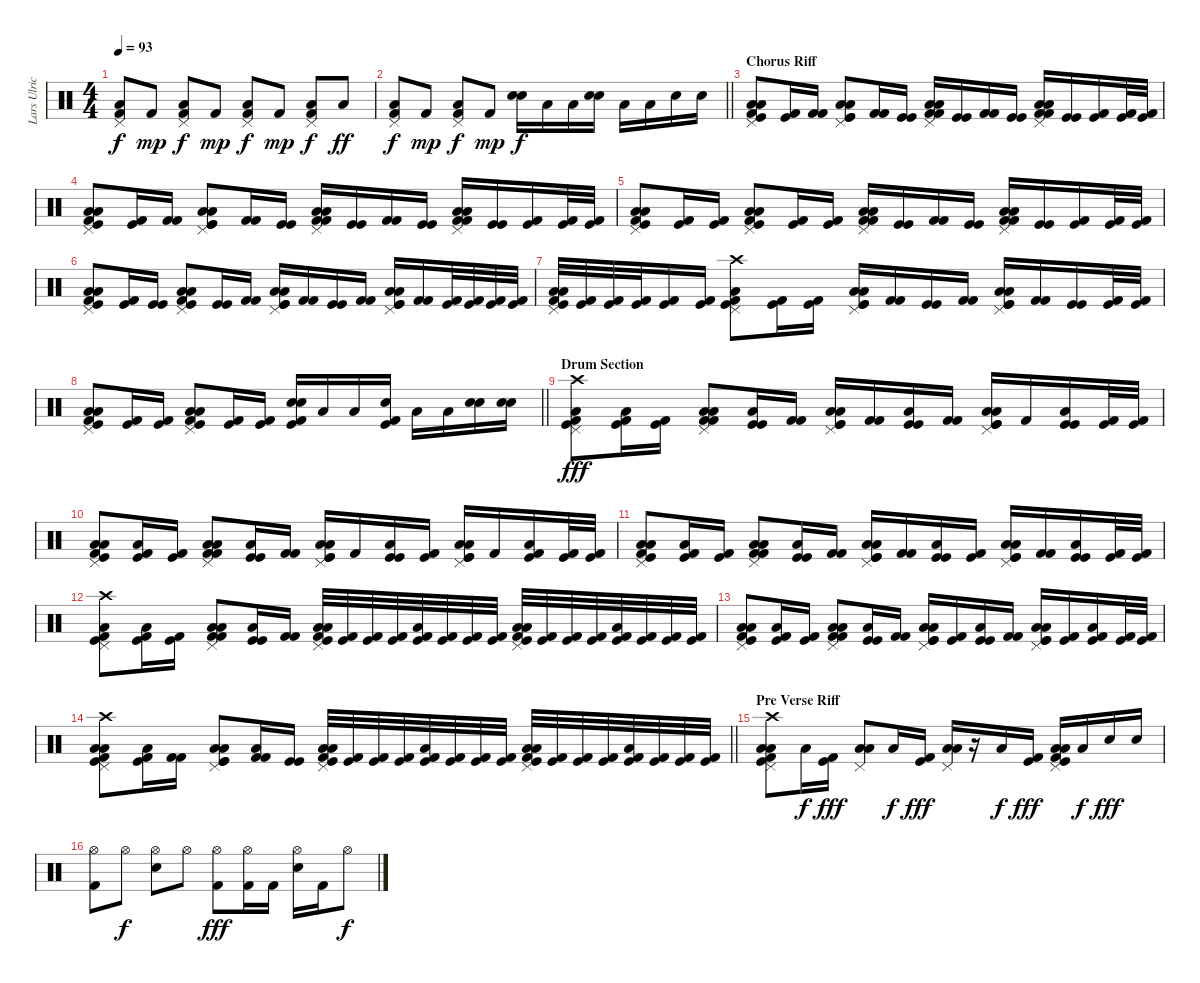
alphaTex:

\track ("Lars Ulrich" "Lars Ulric") {instrument percussion}
\staff {score}
\articulation defaults
\ts (4 4)
\tempo 93
\clef neutral
\ks c
("Pedal Hi-Hat (hit)" "Low Floor Tom (hit)" "Kick (hit) 2").8{dy f} "Kick (hit) 2".8{dy mp} ("Pedal Hi-Hat (hit)" "Low Floor Tom (hit)" "Kick (hit) 2").8{dy f} "Kick (hit) 2".8{dy mp} ("Pedal Hi-Hat (hit)" "Low Floor Tom (hit)" "Kick (hit) 2").8{dy f} "Kick (hit) 2".8{dy mp} ("Pedal Hi-Hat (hit)" "Low Floor Tom (hit)" "Kick (hit) 2").8{dy f} "Low Floor Tom (hit)".8{dy ff} |
\barLineRight lightlight
("Pedal Hi-Hat (hit)" "Low Floor Tom (hit)" "Kick (hit) 2").8{dy f} "Kick (hit) 2".8{dy mp} ("Pedal Hi-Hat (hit)" "Low Floor Tom (hit)" "Kick (hit) 2").8{dy f} "Kick (hit) 2".8{dy mp} ("Electric Snare (hit)" "Snare (hit) 2").16{dy f} "Low Tom (hit)".16 "Low Floor Tom (hit)".16 ("Electric Snare (hit)" "Snare (hit) 2").16 "Low Tom (hit)".16 "Low Floor Tom (hit)".16 "Snare (hit) 2".16 "Snare (hit) 2".16 |
\section ("" "Chorus Riff")
("Pedal Hi-Hat (hit)" "Low Floor Tom (hit)" "Low Tom (hit)" "Kick (hit)" "Kick (hit) 2").8 ("Kick (hit)" "Kick (hit) 2").16 ("Kick (hit) 2" "Kick (hit) 2").16 ("Pedal Hi-Hat (hit)" "Low Floor Tom (hit)" "Low Tom (hit)" "Kick (hit)" "Kick (hit)").8 ("Kick (hit) 2" "Kick (hit) 2").16 ("Kick (hit)" "Kick (hit)").16 ("Pedal Hi-Hat (hit)" "Low Floor Tom (hit)" "Low Tom (hit)" "Kick (hit) 2" "Kick (hit) 2").16 ("Kick (hit)" "Kick (hit)").16 ("Kick (hit) 2" "Kick (hit) 2").16 ("Kick (hit)" "Kick (hit)").16 ("Pedal Hi-Hat (hit)" "Low Floor Tom (hit)" "Low Tom (hit)" "Kick (hit) 2" "Kick (hit) 2").16 ("Kick (hit)" "Kick (hit)").16 ("Kick (hit)" "Kick (hit) 2").16 ("Kick (hit)" "Kick (hit) 2").32 ("Kick (hit)" "Kick (hit) 2").32 |
("Pedal Hi-Hat (hit)" "Low Floor Tom (hit)" "Low Tom (hit)" "Kick (hit)" "Kick (hit) 2").8 ("Kick (hit)" "Kick (hit) 2").16 ("Kick (hit) 2" "Kick (hit) 2").16 ("Pedal Hi-Hat (hit)" "Low Floor Tom (hit)" "Low Tom (hit)" "Kick (hit)" "Kick (hit)").8 ("Kick (hit) 2" "Kick (hit) 2").16 ("Kick (hit)" "Kick (hit)").16 ("Pedal Hi-Hat (hit)" "Low Floor Tom (hit)" "Low Tom (hit)" "Kick (hit) 2" "Kick (hit) 2").16 ("Kick (hit)" "Kick (hit)").16 ("Kick (hit) 2" "Kick (hit) 2").16 ("Kick (hit)" "Kick (hit)").16 ("Pedal Hi-Hat (hit)" "Low Floor Tom (hit)" "Low Tom (hit)" "Kick (hit) 2" "Kick (hit) 2").16 ("Kick (hit)" "Kick (hit)").16 ("Kick (hit)" "Kick (hit) 2").16 ("Kick (hit)" "Kick (hit) 2").32 ("Kick (hit)" "Kick (hit) 2").32 |
("Pedal Hi-Hat (hit)" "Low Floor Tom (hit)" "Low Tom (hit)" "Kick (hit)" "Kick (hit) 2").8 ("Kick (hit)" "Kick (hit) 2").16 ("Kick (hit)" "Kick (hit) 2").16 ("Pedal Hi-Hat (hit)" "Low Floor Tom (hit)" "Low Tom (hit)" "Kick (hit)" "Kick (hit) 2").8 ("Kick (hit)" "Kick (hit) 2").16 ("Kick (hit)" "Kick (hit) 2").16 ("Pedal Hi-Hat (hit)" "Low Floor Tom (hit)" "Low Tom (hit)" "Kick (hit) 2" "Kick (hit) 2").16 ("Kick (hit)" "Kick (hit)").16 ("Kick (hit) 2" "Kick (hit) 2").16 ("Kick (hit)" "Kick (hit)").16 ("Pedal Hi-Hat (hit)" "Low Floor Tom (hit)" "Low Tom (hit)" "Kick (hit) 2" "Kick (hit) 2").16 ("Kick (hit)" "Kick (hit)").16 ("Kick (hit)" "Kick (hit) 2").16 ("Kick (hit)" "Kick (hit) 2").32 ("Kick (hit)" "Kick (hit) 2").32 |
("Pedal Hi-Hat (hit)" "Low Floor Tom (hit)" "Low Tom (hit)" "Kick (hit)" "Kick (hit) 2").8 ("Kick (hit)" "Kick (hit) 2").16 ("Kick (hit)" "Kick (hit)").16 ("Pedal Hi-Hat (hit)" "Low Floor Tom (hit)" "Low Tom (hit)" "Kick (hit)" "Kick (hit) 2").8 ("Kick (hit)" "Kick (hit)").16 ("Kick (hit) 2" "Kick (hit) 2").16 ("Pedal Hi-Hat (hit)" "Low Floor Tom (hit)" "Low Tom (hit)" "Kick (hit)" "Kick (hit)").16 ("Kick (hit) 2" "Kick (hit) 2").16 ("Kick (hit)" "Kick (hit)").16 ("Kick (hit) 2" "Kick (hit) 2").16 ("Pedal Hi-Hat (hit)" "Low Floor Tom (hit)" "Low Tom (hit)" "Kick (hit)" "Kick (hit)").16 ("Kick (hit) 2" "Kick (hit) 2").16 ("Kick (hit)" "Kick (hit) 2").32 ("Kick (hit)" "Kick (hit) 2").32 ("Kick (hit)" "Kick (hit) 2").32 ("Kick (hit)" "Kick (hit) 2").32 |
("Pedal Hi-Hat (hit)" "Low Floor Tom (hit)" "Low Tom (hit)" "Kick (hit)" "Kick (hit) 2").32 ("Kick (hit)" "Kick (hit) 2").32 ("Kick (hit)" "Kick (hit) 2").32 ("Kick (hit)" "Kick (hit) 2").32 ("Kick (hit)" "Kick (hit) 2").16 ("Kick (hit)" "Kick (hit) 2").16 ("Crash high (hit)" "Pedal Hi-Hat (hit)" "Low Floor Tom (hit)" "Kick (hit)" "Kick (hit) 2").8 ("Kick (hit)" "Kick (hit) 2").16 ("Kick (hit)" "Kick (hit) 2").16 ("Pedal Hi-Hat (hit)" "Low Floor Tom (hit)" "Low Tom (hit)" "Kick (hit)" "Kick (hit)").16 ("Kick (hit) 2" "Kick (hit) 2").16 ("Kick (hit)" "Kick (hit)").16 ("Kick (hit) 2" "Kick (hit) 2").16 ("Pedal Hi-Hat (hit)" "Low Floor Tom (hit)" "Low Tom (hit)" "Kick (hit)" "Kick (hit)").16 ("Kick (hit) 2" "Kick (hit) 2").16 ("Kick (hit)" "Kick (hit)").16 ("Kick (hit)" "Kick (hit) 2").32 ("Kick (hit)" "Kick (hit) 2").32 |
\barLineRight lightlight
("Pedal Hi-Hat (hit)" "Low Floor Tom (hit)" "Low Tom (hit)" "Kick (hit)" "Kick (hit) 2").8 ("Kick (hit)" "Kick (hit) 2").16 ("Kick (hit)" "Kick (hit) 2").16 ("Pedal Hi-Hat (hit)" "Low Floor Tom (hit)" "Low Tom (hit)" "Kick (hit)" "Kick (hit) 2").8 ("Kick (hit)" "Kick (hit) 2").16 ("Kick (hit)" "Kick (hit) 2").16 ("Snare (hit) 2" "Electric Snare (hit)" "Kick (hit)" "Kick (hit) 2").16 "Low Tom (hit)".16 "Low Floor Tom (hit)".16 ("Snare (hit) 2" "Kick (hit)" "Kick (hit) 2").16 "Low Tom (hit)".16 "Low Floor Tom (hit)".16 ("Snare (hit) 2" "Electric Snare (hit)").16 ("Snare (hit) 2" "Electric Snare (hit)").16 |
\section ("" "Drum Section")
("Crash high (hit)" "Pedal Hi-Hat (hit)" "Low Floor Tom (hit)" "Kick (hit)" "Kick (hit) 2").8{dy fff} ("Low Floor Tom (hit)" "Kick (hit)" "Kick (hit) 2").16 ("Kick (hit)" "Kick (hit) 2").16 ("Pedal Hi-Hat (hit)" "Low Tom (hit)" "Low Floor Tom (hit)" "Kick (hit) 2" "Kick (hit) 2").8 ("Low Floor Tom (hit)" "Kick (hit)" "Kick (hit)").16 ("Kick (hit) 2" "Kick (hit) 2").16 ("Pedal Hi-Hat (hit)" "Low Tom (hit)" "Low Floor Tom (hit)" "Kick (hit)" "Kick (hit)").16 ("Kick (hit) 2" "Kick (hit) 2").16 ("Low Floor Tom (hit)" "Kick (hit)" "Kick (hit)").16 ("Kick (hit) 2" "Kick (hit) 2").16 ("Pedal Hi-Hat (hit)" "Low Tom (hit)" "Low Floor Tom (hit)" "Kick (hit)" "Kick (hit)").16 "Kick (hit) 2".16 ("Low Floor Tom (hit)" "Kick (hit)" "Kick (hit)").16 ("Kick (hit)" "Kick (hit) 2").32 ("Kick (hit)" "Kick (hit) 2").32 |
("Pedal Hi-Hat (hit)" "Low Tom (hit)" "Low Floor Tom (hit)" "Kick (hit)" "Kick (hit) 2").8 ("Low Floor Tom (hit)" "Kick (hit)" "Kick (hit) 2").16 ("Kick (hit)" "Kick (hit) 2").16 ("Pedal Hi-Hat (hit)" "Low Tom (hit)" "Low Floor Tom (hit)" "Kick (hit) 2" "Kick (hit) 2").8 ("Low Floor Tom (hit)" "Kick (hit)" "Kick (hit)").16 ("Kick (hit) 2" "Kick (hit) 2").16 ("Pedal Hi-Hat (hit)" "Low Tom (hit)" "Low Floor Tom (hit)" "Kick (hit)" "Kick (hit)").16 "Kick (hit) 2".16 ("Low Floor Tom (hit)" "Kick (hit)" "Kick (hit)").16 ("Kick (hit)" "Kick (hit) 2").16 ("Pedal Hi-Hat (hit)" "Low Tom (hit)" "Low Floor Tom (hit)" "Kick (hit)" "Kick (hit)").16 "Kick (hit) 2".16 ("Low Floor Tom (hit)" "Kick (hit)" "Kick (hit) 2").16 ("Kick (hit)" "Kick (hit) 2").32 ("Kick (hit)" "Kick (hit) 2").32 |
("Pedal Hi-Hat (hit)" "Low Tom (hit)" "Low Floor Tom (hit)" "Kick (hit)" "Kick (hit) 2").8 ("Low Floor Tom (hit)" "Kick (hit)" "Kick (hit) 2").16 ("Kick (hit)" "Kick (hit) 2").16 ("Pedal Hi-Hat (hit)" "Low Tom (hit)" "Low Floor Tom (hit)" "Kick (hit) 2" "Kick (hit) 2").8 ("Low Floor Tom (hit)" "Kick (hit)" "Kick (hit)").16 ("Kick (hit) 2" "Kick (hit) 2").16 ("Pedal Hi-Hat (hit)" "Low Tom (hit)" "Low Floor Tom (hit)" "Kick (hit)" "Kick (hit)").16 ("Kick (hit) 2" "Kick (hit) 2").16 ("Low Floor Tom (hit)" "Kick (hit)" "Kick (hit)").16 ("Kick (hit)" "Kick (hit) 2").16 ("Pedal Hi-Hat (hit)" "Low Tom (hit)" "Low Floor Tom (hit)" "Kick (hit)" "Kick (hit)").16 ("Kick (hit) 2" "Kick (hit) 2").16 ("Low Floor Tom (hit)" "Kick (hit)" "Kick (hit)").16 ("Kick (hit)" "Kick (hit) 2").32 ("Kick (hit)" "Kick (hit) 2").32 |
("Crash high (hit)" "Pedal Hi-Hat (hit)" "Low Floor Tom (hit)" "Kick (hit)" "Kick (hit) 2").8 ("Low Floor Tom (hit)" "Kick (hit)" "Kick (hit) 2").16 ("Kick (hit)" "Kick (hit) 2").16 ("Pedal Hi-Hat (hit)" "Low Tom (hit)" "Low Floor Tom (hit)" "Kick (hit) 2" "Kick (hit) 2").8 ("Low Floor Tom (hit)" "Kick (hit)" "Kick (hit)").16 ("Kick (hit) 2" "Kick (hit) 2").16 ("Pedal Hi-Hat (hit)" "Low Tom (hit)" "Low Floor Tom (hit)" "Kick (hit)" "Kick (hit) 2").32 ("Kick (hit)" "Kick (hit) 2").32 ("Kick (hit)" "Kick (hit) 2").32 ("Kick (hit)" "Kick (hit) 2").32 ("Low Floor Tom (hit)" "Kick (hit)" "Kick (hit) 2").32 ("Kick (hit)" "Kick (hit) 2").32 ("Kick (hit)" "Kick (hit) 2").32 ("Kick (hit)" "Kick (hit) 2").32 ("Pedal Hi-Hat (hit)" "Low Tom (hit)" "Low Floor Tom (hit)" "Kick (hit)" "Kick (hit) 2").32 ("Kick (hit)" "Kick (hit) 2").32 ("Kick (hit)" "Kick (hit) 2").32 ("Kick (hit)" "Kick (hit) 2").32 ("Low Floor Tom (hit)" "Kick (hit)" "Kick (hit) 2").32 ("Kick (hit)" "Kick (hit) 2").32 ("Kick (hit)" "Kick (hit) 2").32 ("Kick (hit)" "Kick (hit) 2").32 |
("Pedal Hi-Hat (hit)" "Low Tom (hit)" "Low Floor Tom (hit)" "Kick (hit)" "Kick (hit) 2").8 ("Low Floor Tom (hit)" "Kick (hit)" "Kick (hit) 2").16 ("Kick (hit)" "Kick (hit) 2").16 ("Pedal Hi-Hat (hit)" "Low Tom (hit)" "Low Floor Tom (hit)" "Kick (hit) 2" "Kick (hit) 2").8 ("Low Floor Tom (hit)" "Kick (hit)" "Kick (hit)").16 ("Kick (hit) 2" "Kick (hit) 2").16 ("Pedal Hi-Hat (hit)" "Low Tom (hit)" "Low Floor Tom (hit)" "Kick (hit)" "Kick (hit)").16 ("Kick (hit)" "Kick (hit) 2").16 ("Low Floor Tom (hit)" "Kick (hit)" "Kick (hit)").16 ("Kick (hit) 2" "Kick (hit) 2").16 ("Pedal Hi-Hat (hit)" "Low Tom (hit)" "Low Floor Tom (hit)" "Kick (hit)" "Kick (hit)").16 ("Kick (hit)" "Kick (hit) 2").16 ("Low Floor Tom (hit)" "Kick (hit)" "Kick (hit) 2").16 ("Kick (hit)" "Kick (hit) 2").32 ("Kick (hit)" "Kick (hit) 2").32 |
\barLineRight lightlight
("Crash high (hit)" "Pedal Hi-Hat (hit)" "Low Tom (hit)" "Low Floor Tom (hit)" "Kick (hit)" "Kick (hit) 2").8 ("Low Floor Tom (hit)" "Kick (hit)" "Kick (hit) 2").16 ("Kick (hit) 2" "Kick (hit) 2").16 ("Pedal Hi-Hat (hit)" "Low Tom (hit)" "Low Floor Tom (hit)" "Kick (hit)" "Kick (hit)").8 ("Low Floor Tom (hit)" "Kick (hit) 2" "Kick (hit) 2").16 ("Kick (hit)" "Kick (hit)").16 ("Pedal Hi-Hat (hit)" "Low Tom (hit)" "Low Floor Tom (hit)" "Kick (hit)" "Kick (hit) 2").32 ("Kick (hit)" "Kick (hit) 2").32 ("Kick (hit)" "Kick (hit) 2").32 ("Kick (hit)" "Kick (hit) 2").32 ("Low Floor Tom (hit)" "Kick (hit)" "Kick (hit) 2").32 ("Kick (hit)" "Kick (hit) 2").32 ("Kick (hit)" "Kick (hit) 2").32 ("Kick (hit)" "Kick (hit) 2").32 ("Pedal Hi-Hat (hit)" "Low Tom (hit)" "Low Floor Tom (hit)" "Kick (hit)" "Kick (hit) 2").32 ("Kick (hit)" "Kick (hit) 2").32 ("Kick (hit)" "Kick (hit) 2").32 ("Kick (hit)" "Kick (hit) 2").32 ("Low Floor Tom (hit)" "Kick (hit)" "Kick (hit) 2").32 ("Kick (hit)" "Kick (hit) 2").32 ("Kick (hit)" "Kick (hit) 2").32 ("Kick (hit)" "Kick (hit) 2").32 |
\section ("" "Pre Verse Riff")
("Crash high (hit)" "Pedal Hi-Hat (hit)" "Low Tom (hit)" "Low Floor Tom (hit)" "Kick (hit)" "Kick (hit) 2").8 "Low Floor Tom (hit)".16{dy f} ("Kick (hit)" "Kick (hit) 2").16{dy fff} ("Pedal Hi-Hat (hit)" "Low Tom (hit)" "Low Floor Tom (hit)").8 "Low Floor Tom (hit)".16{dy f} ("Kick (hit)" "Kick (hit) 2").16{dy fff} ("Pedal Hi-Hat (hit)" "Low Tom (hit)" "Low Floor Tom (hit)").16 r.16 "Low Floor Tom (hit)".16{dy f} ("Kick (hit)" "Kick (hit) 2").16{dy fff} ("Pedal Hi-Hat (hit)" "Low Tom (hit)" "Low Floor Tom (hit)" "Kick (hit)" "Kick (hit) 2").16 "Low Floor Tom (hit)".16{dy f} "Electric Snare (hit)".16{dy fff} "Electric Snare (hit)".16 |
("Hi-Hat (open)" "Kick (hit) 2").8 "Hi-Hat (open)".8{dy f} ("Hi-Hat (open)" "Snare (hit) 2").8 "Hi-Hat (open)".8 ("Hi-Hat (open)" "Kick (hit) 2").8{dy fff} ("Hi-Hat (open)" "Kick (hit) 2").16 "Kick (hit) 2".16 ("Hi-Hat (open)" "Snare (hit) 2").16 "Kick (hit) 2".16 "Hi-Hat (open)".8{dy f}
